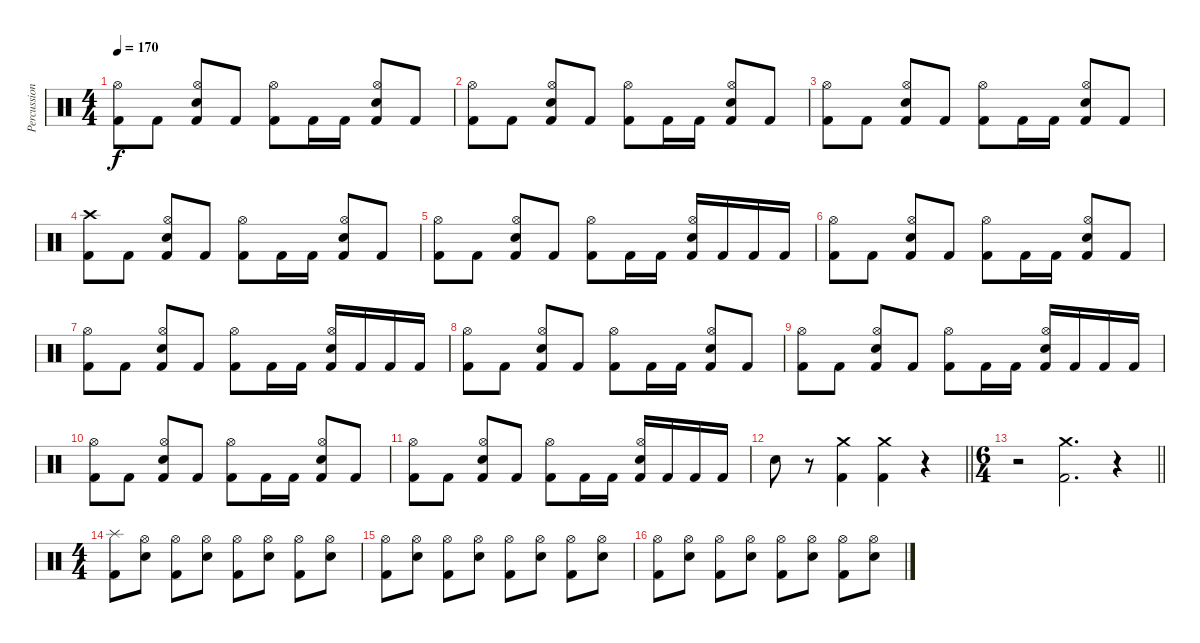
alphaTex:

\track ("Percussion" "Percussion") {instrument percussion}
\staff {score}
\articulation defaults
\ts (4 4)
\tempo 170
\clef neutral
\ks c
("Kick (hit) 2" "Hi-Hat (open)").8{dy f} "Kick (hit) 2".8 ("Kick (hit) 2" "Electric Snare (hit)" "Hi-Hat (open)").8 "Kick (hit) 2".8 ("Kick (hit) 2" "Hi-Hat (open)").8 "Kick (hit) 2".16 "Kick (hit) 2".16 ("Kick (hit) 2" "Electric Snare (hit)" "Hi-Hat (open)").8 "Kick (hit) 2".8 |
("Kick (hit) 2" "Hi-Hat (open)").8 "Kick (hit) 2".8 ("Kick (hit) 2" "Electric Snare (hit)" "Hi-Hat (open)").8 "Kick (hit) 2".8 ("Kick (hit) 2" "Hi-Hat (open)").8 "Kick (hit) 2".16 "Kick (hit) 2".16 ("Kick (hit) 2" "Electric Snare (hit)" "Hi-Hat (open)").8 "Kick (hit) 2".8 |
("Kick (hit) 2" "Hi-Hat (open)").8 "Kick (hit) 2".8 ("Kick (hit) 2" "Electric Snare (hit)" "Hi-Hat (open)").8 "Kick (hit) 2".8 ("Kick (hit) 2" "Hi-Hat (open)").8 "Kick (hit) 2".16 "Kick (hit) 2".16 ("Kick (hit) 2" "Electric Snare (hit)" "Hi-Hat (open)").8 "Kick (hit) 2".8 |
("Kick (hit) 2" "Crash high (hit)").8 "Kick (hit) 2".8 ("Kick (hit) 2" "Electric Snare (hit)" "Hi-Hat (open)").8 "Kick (hit) 2".8 ("Kick (hit) 2" "Hi-Hat (open)").8 "Kick (hit) 2".16 "Kick (hit) 2".16 ("Kick (hit) 2" "Electric Snare (hit)" "Hi-Hat (open)").8 "Kick (hit) 2".8 |
("Kick (hit) 2" "Hi-Hat (open)").8 "Kick (hit) 2".8 ("Kick (hit) 2" "Electric Snare (hit)" "Hi-Hat (open)").8 "Kick (hit) 2".8 ("Kick (hit) 2" "Hi-Hat (open)").8 "Kick (hit) 2".16 "Kick (hit) 2".16 ("Kick (hit) 2" "Electric Snare (hit)" "Hi-Hat (open)").16 "Kick (hit) 2".16 "Kick (hit) 2".16 "Kick (hit) 2".16 |
("Kick (hit) 2" "Hi-Hat (open)").8 "Kick (hit) 2".8 ("Kick (hit) 2" "Electric Snare (hit)" "Hi-Hat (open)").8 "Kick (hit) 2".8 ("Kick (hit) 2" "Hi-Hat (open)").8 "Kick (hit) 2".16 "Kick (hit) 2".16 ("Kick (hit) 2" "Electric Snare (hit)" "Hi-Hat (open)").8 "Kick (hit) 2".8 |
("Kick (hit) 2" "Hi-Hat (open)").8 "Kick (hit) 2".8 ("Kick (hit) 2" "Electric Snare (hit)" "Hi-Hat (open)").8 "Kick (hit) 2".8 ("Kick (hit) 2" "Hi-Hat (open)").8 "Kick (hit) 2".16 "Kick (hit) 2".16 ("Kick (hit) 2" "Electric Snare (hit)" "Hi-Hat (open)").16 "Kick (hit) 2".16 "Kick (hit) 2".16 "Kick (hit) 2".16 |
("Kick (hit) 2" "Hi-Hat (open)").8 "Kick (hit) 2".8 ("Kick (hit) 2" "Electric Snare (hit)" "Hi-Hat (open)").8 "Kick (hit) 2".8 ("Kick (hit) 2" "Hi-Hat (open)").8 "Kick (hit) 2".16 "Kick (hit) 2".16 ("Kick (hit) 2" "Electric Snare (hit)" "Hi-Hat (open)").8 "Kick (hit) 2".8 |
("Kick (hit) 2" "Hi-Hat (open)").8 "Kick (hit) 2".8 ("Kick (hit) 2" "Electric Snare (hit)" "Hi-Hat (open)").8 "Kick (hit) 2".8 ("Kick (hit) 2" "Hi-Hat (open)").8 "Kick (hit) 2".16 "Kick (hit) 2".16 ("Kick (hit) 2" "Electric Snare (hit)" "Hi-Hat (open)").16 "Kick (hit) 2".16 "Kick (hit) 2".16 "Kick (hit) 2".16 |
("Kick (hit) 2" "Hi-Hat (open)").8 "Kick (hit) 2".8 ("Kick (hit) 2" "Electric Snare (hit)" "Hi-Hat (open)").8 "Kick (hit) 2".8 ("Kick (hit) 2" "Hi-Hat (open)").8 "Kick (hit) 2".16 "Kick (hit) 2".16 ("Kick (hit) 2" "Electric Snare (hit)" "Hi-Hat (open)").8 "Kick (hit) 2".8 |
("Kick (hit) 2" "Hi-Hat (open)").8 "Kick (hit) 2".8 ("Kick (hit) 2" "Electric Snare (hit)" "Hi-Hat (open)").8 "Kick (hit) 2".8 ("Kick (hit) 2" "Hi-Hat (open)").8 "Kick (hit) 2".16 "Kick (hit) 2".16 ("Kick (hit) 2" "Electric Snare (hit)" "Hi-Hat (open)").16 "Kick (hit) 2".16 "Kick (hit) 2".16 "Kick (hit) 2".16 |
\barLineRight lightlight "Electric Snare (hit)".8
r.8 ("Crash medium (hit)" "Kick (hit) 2").4 ("Crash medium (hit)" "Kick (hit) 2").4 r.4 |
\ts (6 4)
\barLineRight lightlight
r.2 ("Crash medium (hit)" "Kick (hit) 2").2{d} r.4 |
\ts (4 4)
\section ("" "")
("Kick (hit) 2" "Splash (hit)").8 ("Hi-Hat (open)" "Electric Snare (hit)").8 ("Kick (hit) 2" "Hi-Hat (open)").8 ("Hi-Hat (open)" "Electric Snare (hit)").8 ("Kick (hit) 2" "Hi-Hat (open)").8 ("Hi-Hat (open)" "Electric Snare (hit)").8 ("Kick (hit) 2" "Hi-Hat (open)").8 ("Hi-Hat (open)" "Electric Snare (hit)").8 |
("Kick (hit) 2" "Hi-Hat (open)").8 ("Hi-Hat (open)" "Electric Snare (hit)").8 ("Kick (hit) 2" "Hi-Hat (open)").8 ("Hi-Hat (open)" "Electric Snare (hit)").8 ("Kick (hit) 2" "Hi-Hat (open)").8 ("Hi-Hat (open)" "Electric Snare (hit)").8 ("Kick (hit) 2" "Hi-Hat (open)").8 ("Hi-Hat (open)" "Electric Snare (hit)").8 |
("Kick (hit) 2" "Hi-Hat (open)").8 ("Hi-Hat (open)" "Electric Snare (hit)").8 ("Kick (hit) 2" "Hi-Hat (open)").8 ("Hi-Hat (open)" "Electric Snare (hit)").8 ("Kick (hit) 2" "Hi-Hat (open)").8 ("Hi-Hat (open)" "Electric Snare (hit)").8 ("Kick (hit) 2" "Hi-Hat (open)").8 ("Hi-Hat (open)" "Electric Snare (hit)").8
